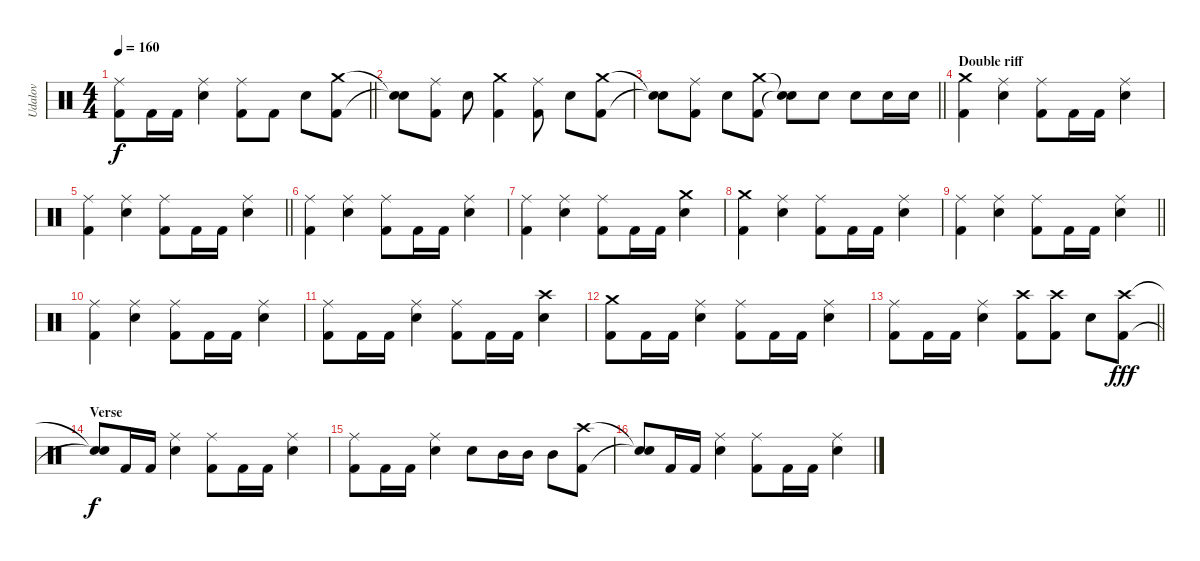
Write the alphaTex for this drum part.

\track ("Udalov" "Udalov") {instrument percussion}
\staff {score}
\articulation defaults
\ts (4 4)
\tempo 160
\clef neutral
\barLineRight lightlight
\ks c
("Kick (hit) 2" "Ride (middle)").8{dy f} "Kick (hit) 2".16 "Kick (hit) 2".16 ("Snare (hit) 2" "Ride (middle)").4 ("Kick (hit) 2" "Ride (middle)").8 "Kick (hit) 2".8 "Snare (hit) 2".8 ("Kick (hit) 2" "Crash medium (hit)").8 |
("Snare (hit)"{t} "Snare (hit)"{t}).8 ("Kick (hit) 2" "Ride (middle)").8 "Snare (hit) 2".8 ("Kick (hit) 2" "Crash medium (hit)").4 ("Kick (hit) 2" "Ride (middle)").8 "Snare (hit) 2".8 ("Kick (hit) 2" "Crash medium (hit)").8 |
\barLineRight lightlight
("Snare (hit)"{t} "Snare (hit)"{t}).8 ("Kick (hit) 2" "Ride (middle)").8 "Snare (hit) 2".8 ("Kick (hit) 2" "Crash medium (hit)").8 ("Snare (hit)"{t} "Snare (hit)"{t}).8 "Snare (hit) 2".8 "Snare (hit) 2".8 "Snare (hit) 2".16 "Snare (hit) 2".16 |
\section ("" "Double riff")
("Kick (hit) 2" "Crash medium (hit)").4 ("Snare (hit) 2" "Ride (middle)").4 ("Kick (hit) 2" "Ride (middle)").8 "Kick (hit) 2".16 "Kick (hit) 2".16 ("Snare (hit) 2" "Ride (middle)").4 |
\barLineRight lightlight
("Kick (hit) 2" "Ride (middle)").4 ("Snare (hit) 2" "Ride (middle)").4 ("Kick (hit) 2" "Ride (middle)").8 "Kick (hit) 2".16 "Kick (hit) 2".16 ("Snare (hit) 2" "Ride (middle)").4 |
("Kick (hit) 2" "Ride (middle)").4 ("Snare (hit) 2" "Ride (middle)").4 ("Kick (hit) 2" "Ride (middle)").8 "Kick (hit) 2".16 "Kick (hit) 2".16 ("Snare (hit) 2" "Ride (middle)").4 |
("Kick (hit) 2" "Ride (middle)").4 ("Snare (hit) 2" "Ride (middle)").4 ("Kick (hit) 2" "Ride (middle)").8 "Kick (hit) 2".16 "Kick (hit) 2".16 ("Snare (hit) 2" "Crash medium (hit)").4 |
("Kick (hit) 2" "Crash medium (hit)").4 ("Snare (hit) 2" "Ride (middle)").4 ("Kick (hit) 2" "Ride (middle)").8 "Kick (hit) 2".16 "Kick (hit) 2".16 ("Snare (hit) 2" "Ride (middle)").4 |
\barLineRight lightlight
("Kick (hit) 2" "Ride (middle)").4 ("Snare (hit) 2" "Ride (middle)").4 ("Kick (hit) 2" "Ride (middle)").8 "Kick (hit) 2".16 "Kick (hit) 2".16 ("Snare (hit) 2" "Ride (middle)").4 |
("Kick (hit) 2" "Ride (middle)").4 ("Snare (hit) 2" "Ride (middle)").4 ("Kick (hit) 2" "Ride (middle)").8 "Kick (hit) 2".16 "Kick (hit) 2".16 ("Snare (hit) 2" "Ride (middle)").4 |
("Kick (hit) 2" "Ride (middle)").8 "Kick (hit) 2".16 "Kick (hit) 2".16 ("Snare (hit) 2" "Ride (middle)").4 ("Kick (hit) 2" "Ride (middle)").8 "Kick (hit) 2".16 "Kick (hit) 2".16 ("Snare (hit) 2" "Crash high (hit)").4 |
("Kick (hit) 2" "Crash medium (hit)").8 "Kick (hit) 2".16 "Kick (hit) 2".16 ("Snare (hit) 2" "Ride (middle)").4 ("Kick (hit) 2" "Ride (middle)").8 "Kick (hit) 2".16 "Kick (hit) 2".16 ("Snare (hit) 2" "Ride (middle)").4 |
\barLineRight lightlight
("Kick (hit) 2" "Ride (middle)").8 "Kick (hit) 2".16 "Kick (hit) 2".16 ("Snare (hit) 2" "Ride (middle)").4 ("Kick (hit) 2" "Crash high (hit)").8 ("Kick (hit) 2" "Crash high (hit)").8 "Snare (hit) 2".8 ("Kick (hit) 2" "Crash high (hit)").8{dy fff} |
\section ("" "Verse")
("Snare (hit)"{t} "Snare (hit)"{t}).8{dy f} "Kick (hit) 2".16 "Kick (hit) 2".16 ("Snare (hit) 2" "Ride (middle)").4 ("Kick (hit) 2" "Ride (middle)").8 "Kick (hit) 2".16 "Kick (hit) 2".16 ("Snare (hit) 2" "Ride (middle)").4 |
("Kick (hit) 2" "Ride (middle)").8 "Kick (hit) 2".16 "Kick (hit) 2".16 ("Snare (hit) 2" "Ride (middle)").4 "Snare (hit) 2".8 "Mid Tom (hit)".16 "Mid Tom (hit)".16 "Mid Tom (hit)".8 ("Kick (hit) 2" "Crash high (hit)").8 |
("Snare (hit)"{t} "Snare (hit)"{t}).8 "Kick (hit) 2".16 "Kick (hit) 2".16 ("Snare (hit) 2" "Ride (middle)").4 ("Kick (hit) 2" "Ride (middle)").8 "Kick (hit) 2".16 "Kick (hit) 2".16 ("Snare (hit) 2" "Ride (middle)").4
